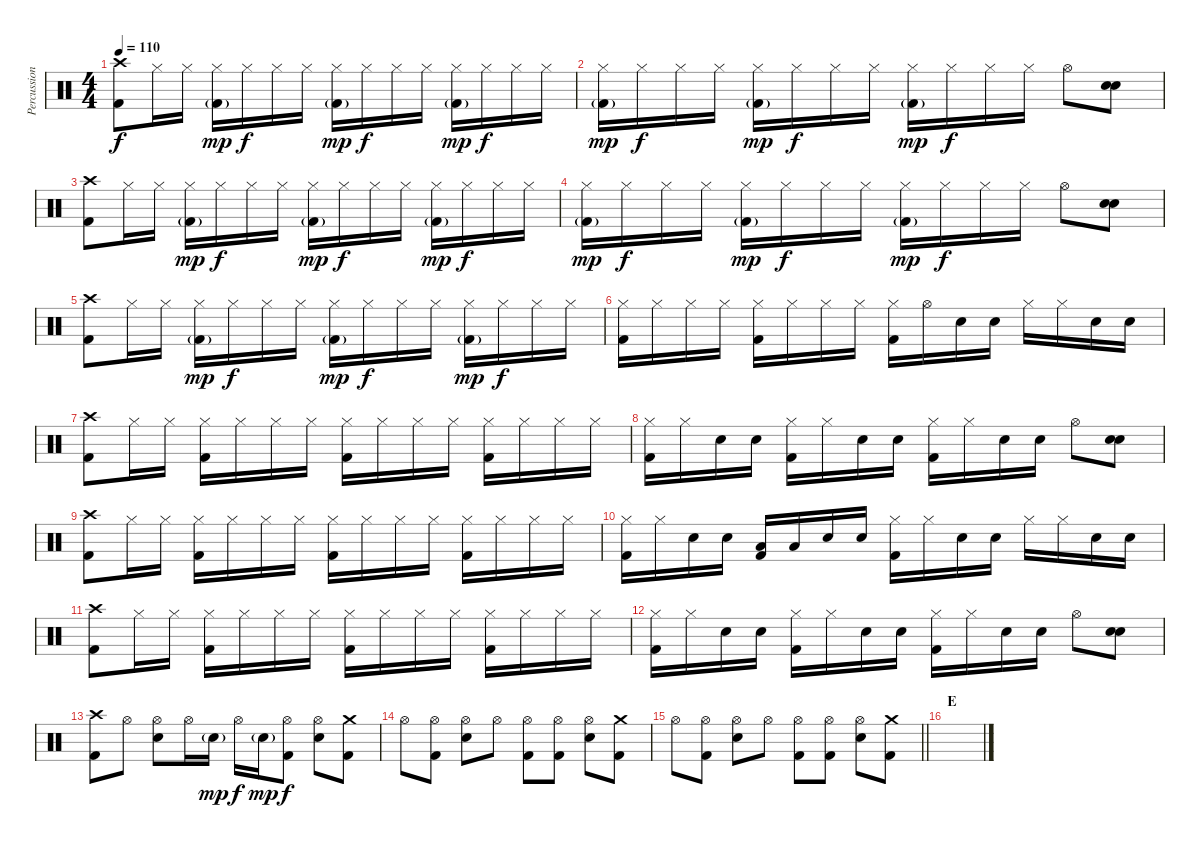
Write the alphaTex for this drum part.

\track ("Percussion" "Percussion") {instrument percussion}
\staff {score}
\articulation defaults
\ts (4 4)
\tempo 110
\clef neutral
\ks c
("Crash high (hit)" "Kick (hit) 2").8{dy f} "Hi-Hat (closed)".16 "Hi-Hat (closed)".16 ("Hi-Hat (closed)" "Kick (hit) 2"{g}).16{dy mp} "Hi-Hat (closed)".16{dy f} "Hi-Hat (closed)".16 "Hi-Hat (closed)".16 ("Hi-Hat (closed)" "Kick (hit) 2"{g}).16{dy mp} "Hi-Hat (closed)".16{dy f} "Hi-Hat (closed)".16 "Hi-Hat (closed)".16 ("Hi-Hat (closed)" "Kick (hit) 2"{g}).16{dy mp} "Hi-Hat (closed)".16{dy f} "Hi-Hat (closed)".16 "Hi-Hat (closed)".16 |
("Hi-Hat (closed)" "Kick (hit) 2"{g}).16{dy mp} "Hi-Hat (closed)".16{dy f} "Hi-Hat (closed)".16 "Hi-Hat (closed)".16 ("Hi-Hat (closed)" "Kick (hit) 2"{g}).16{dy mp} "Hi-Hat (closed)".16{dy f} "Hi-Hat (closed)".16 "Hi-Hat (closed)".16 ("Hi-Hat (closed)" "Kick (hit) 2"{g}).16{dy mp} "Hi-Hat (closed)".16{dy f} "Hi-Hat (closed)".16 "Hi-Hat (closed)".16 "Hi-Hat (open)".8 ("Electric Snare (hit)" "Electric Snare (hit)").8 |
("Crash high (hit)" "Kick (hit) 2").8 "Hi-Hat (closed)".16 "Hi-Hat (closed)".16 ("Hi-Hat (closed)" "Kick (hit) 2"{g}).16{dy mp} "Hi-Hat (closed)".16{dy f} "Hi-Hat (closed)".16 "Hi-Hat (closed)".16 ("Hi-Hat (closed)" "Kick (hit) 2"{g}).16{dy mp} "Hi-Hat (closed)".16{dy f} "Hi-Hat (closed)".16 "Hi-Hat (closed)".16 ("Hi-Hat (closed)" "Kick (hit) 2"{g}).16{dy mp} "Hi-Hat (closed)".16{dy f} "Hi-Hat (closed)".16 "Hi-Hat (closed)".16 |
("Hi-Hat (closed)" "Kick (hit) 2"{g}).16{dy mp} "Hi-Hat (closed)".16{dy f} "Hi-Hat (closed)".16 "Hi-Hat (closed)".16 ("Hi-Hat (closed)" "Kick (hit) 2"{g}).16{dy mp} "Hi-Hat (closed)".16{dy f} "Hi-Hat (closed)".16 "Hi-Hat (closed)".16 ("Hi-Hat (closed)" "Kick (hit) 2"{g}).16{dy mp} "Hi-Hat (closed)".16{dy f} "Hi-Hat (closed)".16 "Hi-Hat (closed)".16 "Hi-Hat (open)".8 ("Electric Snare (hit)" "Electric Snare (hit)").8 |
("Crash high (hit)" "Kick (hit) 2").8 "Hi-Hat (closed)".16 "Hi-Hat (closed)".16 ("Hi-Hat (closed)" "Kick (hit) 2"{g}).16{dy mp} "Hi-Hat (closed)".16{dy f} "Hi-Hat (closed)".16 "Hi-Hat (closed)".16 ("Hi-Hat (closed)" "Kick (hit) 2"{g}).16{dy mp} "Hi-Hat (closed)".16{dy f} "Hi-Hat (closed)".16 "Hi-Hat (closed)".16 ("Hi-Hat (closed)" "Kick (hit) 2"{g}).16{dy mp} "Hi-Hat (closed)".16{dy f} "Hi-Hat (closed)".16 "Hi-Hat (closed)".16 |
("Hi-Hat (closed)" "Kick (hit) 2").16 "Hi-Hat (closed)".16 "Hi-Hat (closed)".16 "Hi-Hat (closed)".16 ("Hi-Hat (closed)" "Kick (hit) 2").16 "Hi-Hat (closed)".16 "Hi-Hat (closed)".16 "Hi-Hat (closed)".16 ("Hi-Hat (closed)" "Kick (hit) 2").16 "Hi-Hat (open)".16 "Electric Snare (hit)".16 "Electric Snare (hit)".16 "Hi-Hat (closed)".16 "Hi-Hat (closed)".16 "Electric Snare (hit)".16 "Electric Snare (hit)".16 |
("Crash high (hit)" "Kick (hit) 2").8 "Hi-Hat (closed)".16 "Hi-Hat (closed)".16 ("Hi-Hat (closed)" "Kick (hit) 2").16 "Hi-Hat (closed)".16 "Hi-Hat (closed)".16 "Hi-Hat (closed)".16 ("Hi-Hat (closed)" "Kick (hit) 2").16 "Hi-Hat (closed)".16 "Hi-Hat (closed)".16 "Hi-Hat (closed)".16 ("Hi-Hat (closed)" "Kick (hit) 2").16 "Hi-Hat (closed)".16 "Hi-Hat (closed)".16 "Hi-Hat (closed)".16 |
("Hi-Hat (closed)" "Kick (hit) 2").16 "Hi-Hat (closed)".16 "Electric Snare (hit)".16 "Electric Snare (hit)".16 ("Hi-Hat (closed)" "Kick (hit) 2").16 "Hi-Hat (closed)".16 "Electric Snare (hit)".16 "Electric Snare (hit)".16 ("Hi-Hat (closed)" "Kick (hit) 2").16 "Hi-Hat (closed)".16 "Electric Snare (hit)".16 "Electric Snare (hit)".16 "Hi-Hat (open)".8 ("Electric Snare (hit)" "Electric Snare (hit)").8 |
("Crash high (hit)" "Kick (hit) 2").8 "Hi-Hat (closed)".16 "Hi-Hat (closed)".16 ("Hi-Hat (closed)" "Kick (hit) 2").16 "Hi-Hat (closed)".16 "Hi-Hat (closed)".16 "Hi-Hat (closed)".16 ("Hi-Hat (closed)" "Kick (hit) 2").16 "Hi-Hat (closed)".16 "Hi-Hat (closed)".16 "Hi-Hat (closed)".16 ("Hi-Hat (closed)" "Kick (hit) 2").16 "Hi-Hat (closed)".16 "Hi-Hat (closed)".16 "Hi-Hat (closed)".16 |
("Hi-Hat (closed)" "Kick (hit) 2").16 "Hi-Hat (closed)".16 "Electric Snare (hit)".16 "Electric Snare (hit)".16 ("Low Tom (hit)" "Kick (hit) 2").16 "Low Tom (hit)".16 "Electric Snare (hit)".16 "Electric Snare (hit)".16 ("Hi-Hat (closed)" "Kick (hit) 2").16 "Hi-Hat (closed)".16 "Electric Snare (hit)".16 "Electric Snare (hit)".16 "Hi-Hat (closed)".16 "Hi-Hat (closed)".16 "Electric Snare (hit)".16 "Electric Snare (hit)".16 |
("Crash high (hit)" "Kick (hit) 2").8 "Hi-Hat (closed)".16 "Hi-Hat (closed)".16 ("Hi-Hat (closed)" "Kick (hit) 2").16 "Hi-Hat (closed)".16 "Hi-Hat (closed)".16 "Hi-Hat (closed)".16 ("Hi-Hat (closed)" "Kick (hit) 2").16 "Hi-Hat (closed)".16 "Hi-Hat (closed)".16 "Hi-Hat (closed)".16 ("Hi-Hat (closed)" "Kick (hit) 2").16 "Hi-Hat (closed)".16 "Hi-Hat (closed)".16 "Hi-Hat (closed)".16 |
("Hi-Hat (closed)" "Kick (hit) 2").16 "Hi-Hat (closed)".16 "Electric Snare (hit)".16 "Electric Snare (hit)".16 ("Hi-Hat (closed)" "Kick (hit) 2").16 "Hi-Hat (closed)".16 "Electric Snare (hit)".16 "Electric Snare (hit)".16 ("Hi-Hat (closed)" "Kick (hit) 2").16 "Hi-Hat (closed)".16 "Electric Snare (hit)".16 "Electric Snare (hit)".16 "Hi-Hat (open)".8 ("Electric Snare (hit)" "Electric Snare (hit)").8 |
("Crash high (hit)" "Kick (hit) 2").8 "Hi-Hat (open)".8 ("Hi-Hat (open)" "Electric Snare (hit)").8 "Hi-Hat (open)".16 "Electric Snare (hit)"{g}.16{dy mp} "Hi-Hat (open)".16{dy f} "Electric Snare (hit)"{g}.16{dy mp} ("Hi-Hat (open)" "Kick (hit) 2").8{dy f} ("Hi-Hat (open)" "Electric Snare (hit)").8 ("Crash medium (hit)" "Kick (hit) 2").8 |
"Hi-Hat (open)".8 ("Hi-Hat (open)" "Kick (hit) 2").8 ("Hi-Hat (open)" "Electric Snare (hit)").8 "Hi-Hat (open)".8 ("Hi-Hat (open)" "Kick (hit) 2").8 ("Hi-Hat (open)" "Kick (hit) 2").8 ("Hi-Hat (open)" "Electric Snare (hit)").8 ("Crash medium (hit)" "Kick (hit) 2").8 |
\barLineRight lightlight "Hi-Hat (open)".8
("Hi-Hat (open)" "Kick (hit) 2").8 ("Hi-Hat (open)" "Electric Snare (hit)").8 "Hi-Hat (open)".8 ("Hi-Hat (open)" "Kick (hit) 2").8 ("Hi-Hat (open)" "Kick (hit) 2").8 ("Hi-Hat (open)" "Electric Snare (hit)").8 ("Crash medium (hit)" "Kick (hit) 2").8 |
\section ("" "E")
